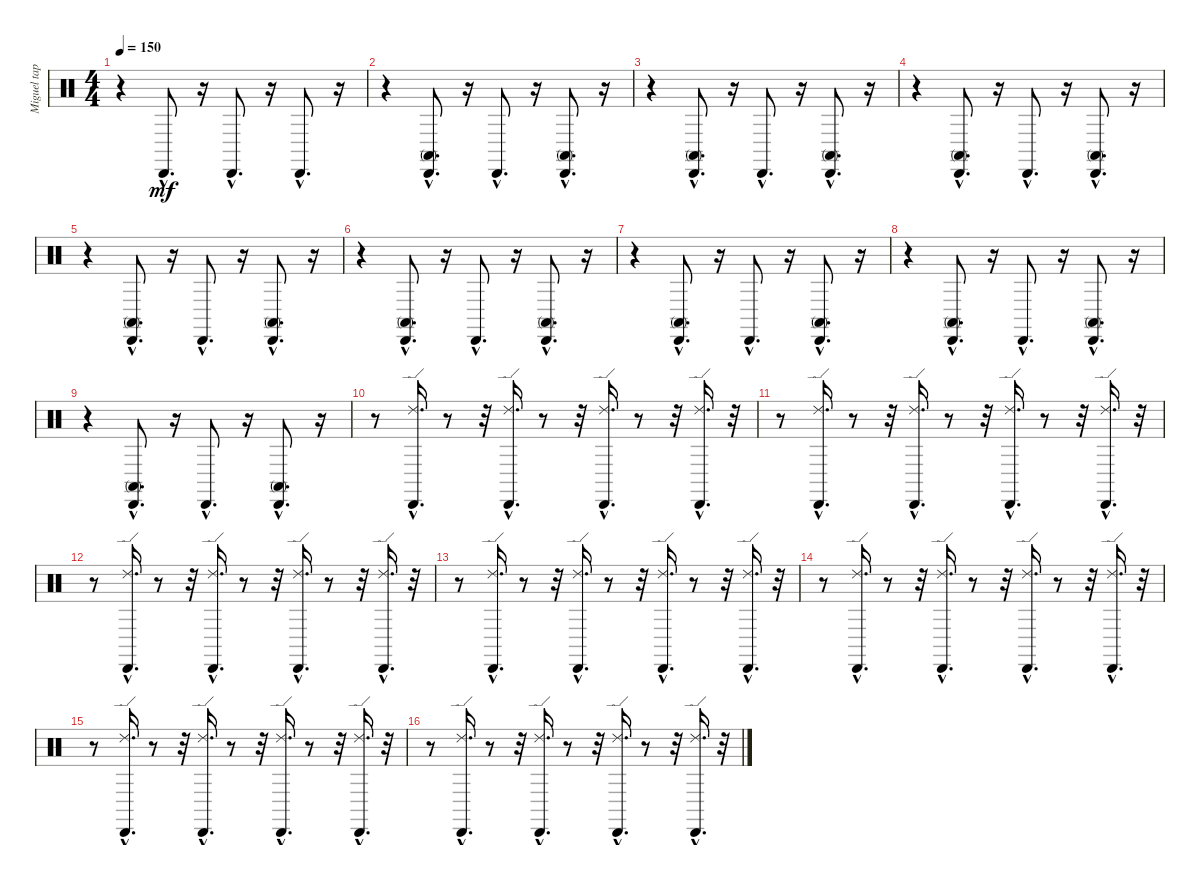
\track ("Miguel tapia" "Miguel tap") {instrument percussion}
\staff {score}
\articulation defaults
\ts (4 4)
\tempo 150
\clef neutral
\ks c
r.4{dy mf} "Cabasa (hit)"{hac}.8{d} r.16 "Cabasa (hit)"{hac}.8{d} r.16 "Cabasa (hit)"{hac}.8{d} r.16 |
r.4 ("Conga high (mute)"{hac} "Cabasa (hit)"{hac}).8{d} r.16 "Cabasa (hit)"{hac}.8{d} r.16 ("Conga high (mute)"{hac} "Cabasa (hit)"{hac}).8{d} r.16 |
r.4 ("Cabasa (hit)"{hac} "Conga high (mute)"{hac}).8{d} r.16 "Cabasa (hit)"{hac}.8{d} r.16 ("Cabasa (hit)"{hac} "Conga high (mute)"{hac}).8{d} r.16 |
r.4 ("Cabasa (hit)"{hac} "Conga high (mute)"{hac}).8{d} r.16 "Cabasa (hit)"{hac}.8{d} r.16 ("Cabasa (hit)"{hac} "Conga high (mute)"{hac}).8{d} r.16 |
r.4 ("Conga high (mute)"{hac} "Cabasa (hit)"{hac}).8{d} r.16 "Cabasa (hit)"{hac}.8{d} r.16 ("Cabasa (hit)"{hac} "Conga high (mute)"{hac}).8{d} r.16 |
r.4 ("Cabasa (hit)"{hac} "Conga high (mute)"{hac}).8{d} r.16 "Cabasa (hit)"{hac}.8{d} r.16 ("Cabasa (hit)"{hac} "Conga high (mute)"{hac}).8{d} r.16 |
r.4 ("Conga high (mute)"{hac} "Cabasa (hit)"{hac}).8{d} r.16 "Cabasa (hit)"{hac}.8{d} r.16 ("Cabasa (hit)"{hac} "Conga high (mute)"{hac}).8{d} r.16 |
r.4 ("Cabasa (hit)"{hac} "Conga high (mute)"{hac}).8{d} r.16 "Cabasa (hit)"{hac}.8{d} r.16 ("Cabasa (hit)"{hac} "Conga high (mute)"{hac}).8{d} r.16 |
r.4 ("Conga high (mute)"{hac} "Cabasa (hit)"{hac}).8{d} r.16 "Cabasa (hit)"{hac}.8{d} r.16 ("Cabasa (hit)"{hac} "Conga high (mute)"{hac}).8{d} r.16 |
r.8 ("Ride (edge) 2"{hac} "Cabasa (hit)"{hac}).16{d} r.8 r.32 ("Cabasa (hit)"{hac} "Ride (edge) 2"{hac}).16{d} r.8 r.32 ("Cabasa (hit)"{hac} "Ride (edge) 2"{hac}).16{d} r.8 r.32 ("Cabasa (hit)"{hac} "Ride (edge) 2"{hac}).16{d} r.32 |
r.8 ("Ride (edge) 2"{hac} "Cabasa (hit)"{hac}).16{d} r.8 r.32 ("Cabasa (hit)"{hac} "Ride (edge) 2"{hac}).16{d} r.8 r.32 ("Cabasa (hit)"{hac} "Ride (edge) 2"{hac}).16{d} r.8 r.32 ("Ride (edge) 2"{hac} "Cabasa (hit)"{hac}).16{d} r.32 |
r.8 ("Cabasa (hit)"{hac} "Ride (edge) 2"{hac}).16{d} r.8 r.32 ("Cabasa (hit)"{hac} "Ride (edge) 2"{hac}).16{d} r.8 r.32 ("Cabasa (hit)"{hac} "Ride (edge) 2"{hac}).16{d} r.8 r.32 ("Cabasa (hit)"{hac} "Ride (edge) 2"{hac}).16{d} r.32 |
r.8 ("Cabasa (hit)"{hac} "Ride (edge) 2"{hac}).16{d} r.8 r.32 ("Cabasa (hit)"{hac} "Ride (edge) 2"{hac}).16{d} r.8 r.32 ("Cabasa (hit)"{hac} "Ride (edge) 2"{hac}).16{d} r.8 r.32 ("Cabasa (hit)"{hac} "Ride (edge) 2"{hac}).16{d} r.32 |
r.8 ("Ride (edge) 2"{hac} "Cabasa (hit)"{hac}).16{d} r.8 r.32 ("Cabasa (hit)"{hac} "Ride (edge) 2"{hac}).16{d} r.8 r.32 ("Ride (edge) 2"{hac} "Cabasa (hit)"{hac}).16{d} r.8 r.32 ("Cabasa (hit)"{hac} "Ride (edge) 2"{hac}).16{d} r.32 |
r.8 ("Ride (edge) 2"{hac} "Cabasa (hit)"{hac}).16{d} r.8 r.32 ("Cabasa (hit)"{hac} "Ride (edge) 2"{hac}).16{d} r.8 r.32 ("Ride (edge) 2"{hac} "Cabasa (hit)"{hac}).16{d} r.8 r.32 ("Cabasa (hit)"{hac} "Ride (edge) 2"{hac}).16{d} r.32 |
r.8 ("Ride (edge) 2"{hac} "Cabasa (hit)"{hac}).16{d} r.8 r.32 ("Cabasa (hit)"{hac} "Ride (edge) 2"{hac}).16{d} r.8 r.32 ("Cabasa (hit)"{hac} "Ride (edge) 2"{hac}).16{d} r.8 r.32 ("Ride (edge) 2"{hac} "Cabasa (hit)"{hac}).16{d} r.32
